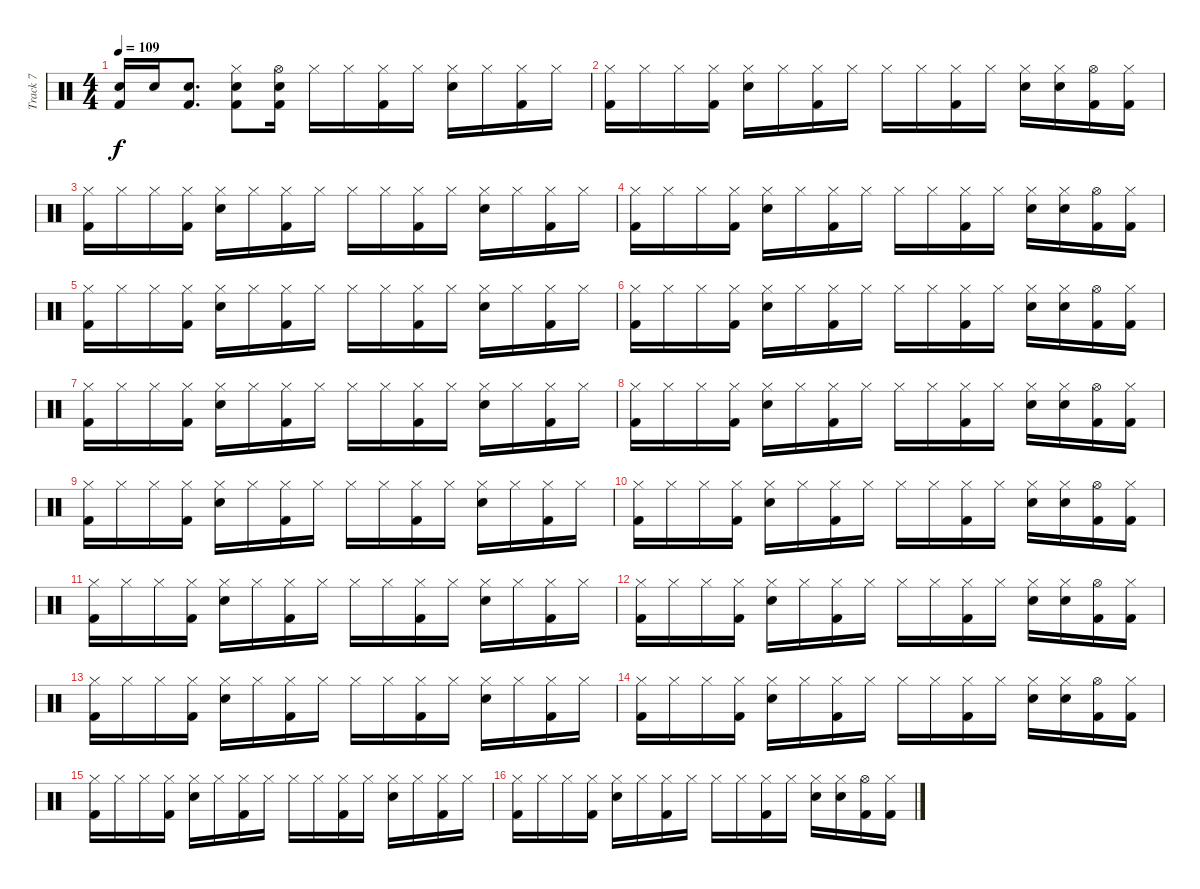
\track ("Track 7" "Track 7") {instrument percussion}
\staff {score}
\articulation defaults
\ts (4 4)
\tempo 109
\clef neutral
\ks c
("Snare (hit) 2" "Kick (hit) 2").16{dy f} "Snare (hit) 2".16 ("Snare (hit) 2" "Kick (hit) 2").8{d} ("Hi-Hat (closed)" "Snare (hit) 2" "Kick (hit) 2").8 ("Hi-Hat (open)" "Snare (hit) 2" "Kick (hit) 2").16 "Hi-Hat (closed)".16 "Hi-Hat (closed)".16 ("Hi-Hat (closed)" "Kick (hit) 2").16 "Hi-Hat (closed)".16 ("Hi-Hat (closed)" "Snare (hit) 2").16 "Hi-Hat (closed)".16 ("Hi-Hat (closed)" "Kick (hit) 2").16 "Hi-Hat (closed)".16 |
("Hi-Hat (closed)" "Kick (hit) 2").16 "Hi-Hat (closed)".16 "Hi-Hat (closed)".16 ("Hi-Hat (closed)" "Kick (hit) 2").16 ("Hi-Hat (closed)" "Snare (hit) 2").16 "Hi-Hat (closed)".16 ("Hi-Hat (closed)" "Kick (hit) 2").16 "Hi-Hat (closed)".16 "Hi-Hat (closed)".16 "Hi-Hat (closed)".16 ("Hi-Hat (closed)" "Kick (hit) 2").16 "Hi-Hat (closed)".16 ("Hi-Hat (closed)" "Snare (hit) 2").16 ("Hi-Hat (closed)" "Snare (hit) 2").16 ("Hi-Hat (open)" "Kick (hit) 2").16 ("Hi-Hat (closed)" "Kick (hit) 2").16 |
("Hi-Hat (closed)" "Kick (hit) 2").16 "Hi-Hat (closed)".16 "Hi-Hat (closed)".16 ("Hi-Hat (closed)" "Kick (hit) 2").16 ("Hi-Hat (closed)" "Snare (hit) 2").16 "Hi-Hat (closed)".16 ("Hi-Hat (closed)" "Kick (hit) 2").16 "Hi-Hat (closed)".16 "Hi-Hat (closed)".16 "Hi-Hat (closed)".16 ("Hi-Hat (closed)" "Kick (hit) 2").16 "Hi-Hat (closed)".16 ("Hi-Hat (closed)" "Snare (hit) 2").16 "Hi-Hat (closed)".16 ("Hi-Hat (closed)" "Kick (hit) 2").16 "Hi-Hat (closed)".16 |
("Hi-Hat (closed)" "Kick (hit) 2").16 "Hi-Hat (closed)".16 "Hi-Hat (closed)".16 ("Hi-Hat (closed)" "Kick (hit) 2").16 ("Hi-Hat (closed)" "Snare (hit) 2").16 "Hi-Hat (closed)".16 ("Hi-Hat (closed)" "Kick (hit) 2").16 "Hi-Hat (closed)".16 "Hi-Hat (closed)".16 "Hi-Hat (closed)".16 ("Hi-Hat (closed)" "Kick (hit) 2").16 "Hi-Hat (closed)".16 ("Hi-Hat (closed)" "Snare (hit) 2").16 ("Hi-Hat (closed)" "Snare (hit) 2").16 ("Hi-Hat (open)" "Kick (hit) 2").16 ("Hi-Hat (closed)" "Kick (hit) 2").16 |
("Hi-Hat (closed)" "Kick (hit) 2").16 "Hi-Hat (closed)".16 "Hi-Hat (closed)".16 ("Hi-Hat (closed)" "Kick (hit) 2").16 ("Hi-Hat (closed)" "Snare (hit) 2").16 "Hi-Hat (closed)".16 ("Hi-Hat (closed)" "Kick (hit) 2").16 "Hi-Hat (closed)".16 "Hi-Hat (closed)".16 "Hi-Hat (closed)".16 ("Hi-Hat (closed)" "Kick (hit) 2").16 "Hi-Hat (closed)".16 ("Hi-Hat (closed)" "Snare (hit) 2").16 "Hi-Hat (closed)".16 ("Hi-Hat (closed)" "Kick (hit) 2").16 "Hi-Hat (closed)".16 |
("Hi-Hat (closed)" "Kick (hit) 2").16 "Hi-Hat (closed)".16 "Hi-Hat (closed)".16 ("Hi-Hat (closed)" "Kick (hit) 2").16 ("Hi-Hat (closed)" "Snare (hit) 2").16 "Hi-Hat (closed)".16 ("Hi-Hat (closed)" "Kick (hit) 2").16 "Hi-Hat (closed)".16 "Hi-Hat (closed)".16 "Hi-Hat (closed)".16 ("Hi-Hat (closed)" "Kick (hit) 2").16 "Hi-Hat (closed)".16 ("Hi-Hat (closed)" "Snare (hit) 2").16 ("Hi-Hat (closed)" "Snare (hit) 2").16 ("Hi-Hat (open)" "Kick (hit) 2").16 ("Hi-Hat (closed)" "Kick (hit) 2").16 |
("Hi-Hat (closed)" "Kick (hit) 2").16 "Hi-Hat (closed)".16 "Hi-Hat (closed)".16 ("Hi-Hat (closed)" "Kick (hit) 2").16 ("Hi-Hat (closed)" "Snare (hit) 2").16 "Hi-Hat (closed)".16 ("Hi-Hat (closed)" "Kick (hit) 2").16 "Hi-Hat (closed)".16 "Hi-Hat (closed)".16 "Hi-Hat (closed)".16 ("Hi-Hat (closed)" "Kick (hit) 2").16 "Hi-Hat (closed)".16 ("Hi-Hat (closed)" "Snare (hit) 2").16 "Hi-Hat (closed)".16 ("Hi-Hat (closed)" "Kick (hit) 2").16 "Hi-Hat (closed)".16 |
("Hi-Hat (closed)" "Kick (hit) 2").16 "Hi-Hat (closed)".16 "Hi-Hat (closed)".16 ("Hi-Hat (closed)" "Kick (hit) 2").16 ("Hi-Hat (closed)" "Snare (hit) 2").16 "Hi-Hat (closed)".16 ("Hi-Hat (closed)" "Kick (hit) 2").16 "Hi-Hat (closed)".16 "Hi-Hat (closed)".16 "Hi-Hat (closed)".16 ("Hi-Hat (closed)" "Kick (hit) 2").16 "Hi-Hat (closed)".16 ("Hi-Hat (closed)" "Snare (hit) 2").16 ("Hi-Hat (closed)" "Snare (hit) 2").16 ("Hi-Hat (open)" "Kick (hit) 2").16 ("Hi-Hat (closed)" "Kick (hit) 2").16 |
("Hi-Hat (closed)" "Kick (hit) 2").16 "Hi-Hat (closed)".16 "Hi-Hat (closed)".16 ("Hi-Hat (closed)" "Kick (hit) 2").16 ("Hi-Hat (closed)" "Snare (hit) 2").16 "Hi-Hat (closed)".16 ("Hi-Hat (closed)" "Kick (hit) 2").16 "Hi-Hat (closed)".16 "Hi-Hat (closed)".16 "Hi-Hat (closed)".16 ("Hi-Hat (closed)" "Kick (hit) 2").16 "Hi-Hat (closed)".16 ("Hi-Hat (closed)" "Snare (hit) 2").16 "Hi-Hat (closed)".16 ("Hi-Hat (closed)" "Kick (hit) 2").16 "Hi-Hat (closed)".16 |
("Hi-Hat (closed)" "Kick (hit) 2").16 "Hi-Hat (closed)".16 "Hi-Hat (closed)".16 ("Hi-Hat (closed)" "Kick (hit) 2").16 ("Hi-Hat (closed)" "Snare (hit) 2").16 "Hi-Hat (closed)".16 ("Hi-Hat (closed)" "Kick (hit) 2").16 "Hi-Hat (closed)".16 "Hi-Hat (closed)".16 "Hi-Hat (closed)".16 ("Hi-Hat (closed)" "Kick (hit) 2").16 "Hi-Hat (closed)".16 ("Hi-Hat (closed)" "Snare (hit) 2").16 ("Hi-Hat (closed)" "Snare (hit) 2").16 ("Hi-Hat (open)" "Kick (hit) 2").16 ("Hi-Hat (closed)" "Kick (hit) 2").16 |
("Hi-Hat (closed)" "Kick (hit) 2").16 "Hi-Hat (closed)".16 "Hi-Hat (closed)".16 ("Hi-Hat (closed)" "Kick (hit) 2").16 ("Hi-Hat (closed)" "Snare (hit) 2").16 "Hi-Hat (closed)".16 ("Hi-Hat (closed)" "Kick (hit) 2").16 "Hi-Hat (closed)".16 "Hi-Hat (closed)".16 "Hi-Hat (closed)".16 ("Hi-Hat (closed)" "Kick (hit) 2").16 "Hi-Hat (closed)".16 ("Hi-Hat (closed)" "Snare (hit) 2").16 "Hi-Hat (closed)".16 ("Hi-Hat (closed)" "Kick (hit) 2").16 "Hi-Hat (closed)".16 |
("Hi-Hat (closed)" "Kick (hit) 2").16 "Hi-Hat (closed)".16 "Hi-Hat (closed)".16 ("Hi-Hat (closed)" "Kick (hit) 2").16 ("Hi-Hat (closed)" "Snare (hit) 2").16 "Hi-Hat (closed)".16 ("Hi-Hat (closed)" "Kick (hit) 2").16 "Hi-Hat (closed)".16 "Hi-Hat (closed)".16 "Hi-Hat (closed)".16 ("Hi-Hat (closed)" "Kick (hit) 2").16 "Hi-Hat (closed)".16 ("Hi-Hat (closed)" "Snare (hit) 2").16 ("Hi-Hat (closed)" "Snare (hit) 2").16 ("Hi-Hat (open)" "Kick (hit) 2").16 ("Hi-Hat (closed)" "Kick (hit) 2").16 |
("Hi-Hat (closed)" "Kick (hit) 2").16 "Hi-Hat (closed)".16 "Hi-Hat (closed)".16 ("Hi-Hat (closed)" "Kick (hit) 2").16 ("Hi-Hat (closed)" "Snare (hit) 2").16 "Hi-Hat (closed)".16 ("Hi-Hat (closed)" "Kick (hit) 2").16 "Hi-Hat (closed)".16 "Hi-Hat (closed)".16 "Hi-Hat (closed)".16 ("Hi-Hat (closed)" "Kick (hit) 2").16 "Hi-Hat (closed)".16 ("Hi-Hat (closed)" "Snare (hit) 2").16 "Hi-Hat (closed)".16 ("Hi-Hat (closed)" "Kick (hit) 2").16 "Hi-Hat (closed)".16 |
("Hi-Hat (closed)" "Kick (hit) 2").16 "Hi-Hat (closed)".16 "Hi-Hat (closed)".16 ("Hi-Hat (closed)" "Kick (hit) 2").16 ("Hi-Hat (closed)" "Snare (hit) 2").16 "Hi-Hat (closed)".16 ("Hi-Hat (closed)" "Kick (hit) 2").16 "Hi-Hat (closed)".16 "Hi-Hat (closed)".16 "Hi-Hat (closed)".16 ("Hi-Hat (closed)" "Kick (hit) 2").16 "Hi-Hat (closed)".16 ("Hi-Hat (closed)" "Snare (hit) 2").16 ("Hi-Hat (closed)" "Snare (hit) 2").16 ("Hi-Hat (open)" "Kick (hit) 2").16 ("Hi-Hat (closed)" "Kick (hit) 2").16 |
("Hi-Hat (closed)" "Kick (hit) 2").16 "Hi-Hat (closed)".16 "Hi-Hat (closed)".16 ("Hi-Hat (closed)" "Kick (hit) 2").16 ("Hi-Hat (closed)" "Snare (hit) 2").16 "Hi-Hat (closed)".16 ("Hi-Hat (closed)" "Kick (hit) 2").16 "Hi-Hat (closed)".16 "Hi-Hat (closed)".16 "Hi-Hat (closed)".16 ("Hi-Hat (closed)" "Kick (hit) 2").16 "Hi-Hat (closed)".16 ("Hi-Hat (closed)" "Snare (hit) 2").16 "Hi-Hat (closed)".16 ("Hi-Hat (closed)" "Kick (hit) 2").16 "Hi-Hat (closed)".16 |
("Hi-Hat (closed)" "Kick (hit) 2").16 "Hi-Hat (closed)".16 "Hi-Hat (closed)".16 ("Hi-Hat (closed)" "Kick (hit) 2").16 ("Hi-Hat (closed)" "Snare (hit) 2").16 "Hi-Hat (closed)".16 ("Hi-Hat (closed)" "Kick (hit) 2").16 "Hi-Hat (closed)".16 "Hi-Hat (closed)".16 "Hi-Hat (closed)".16 ("Hi-Hat (closed)" "Kick (hit) 2").16 "Hi-Hat (closed)".16 ("Hi-Hat (closed)" "Snare (hit) 2").16 ("Hi-Hat (closed)" "Snare (hit) 2").16 ("Hi-Hat (open)" "Kick (hit) 2").16 ("Hi-Hat (closed)" "Kick (hit) 2").16
